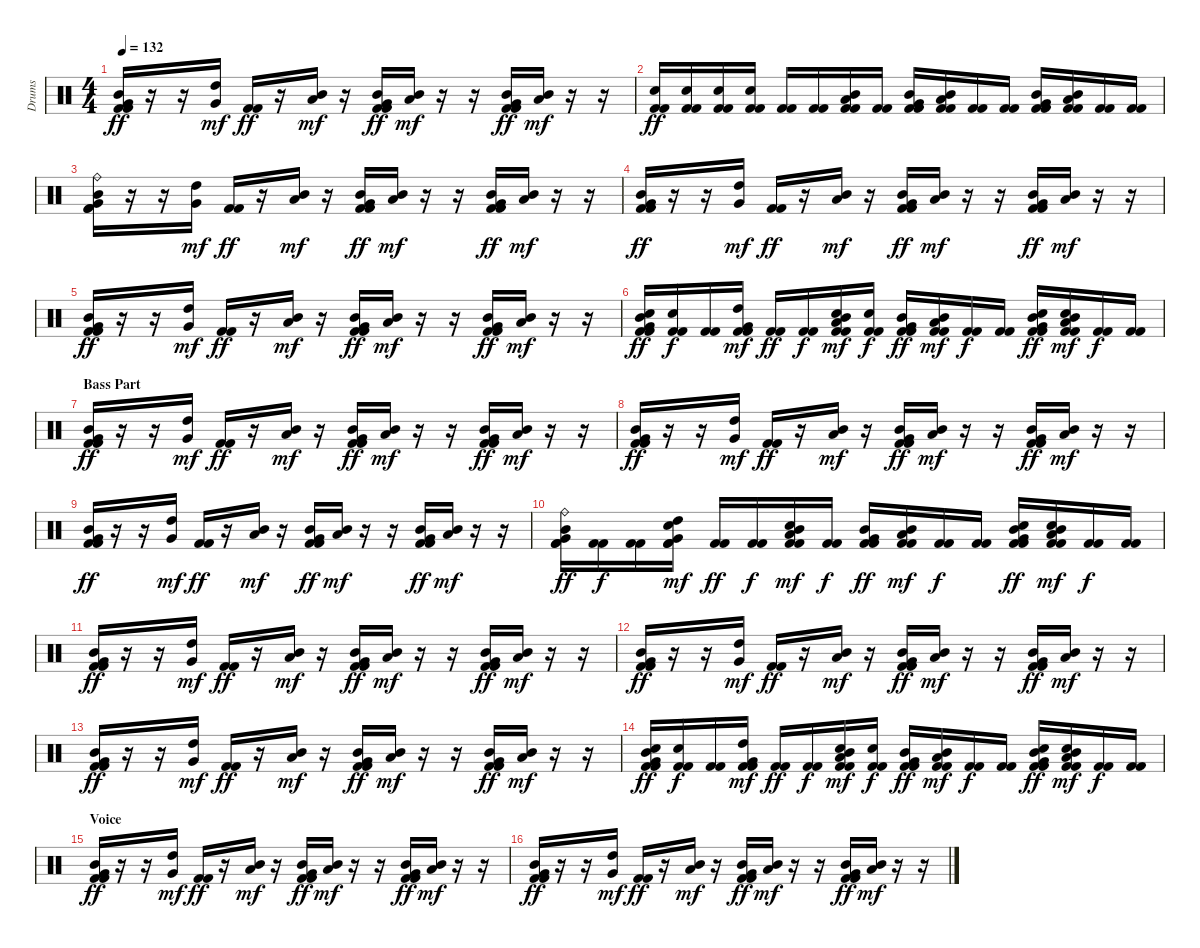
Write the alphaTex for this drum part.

\track ("Drums" "Drums") {instrument percussion}
\staff {score}
\articulation defaults
\ts (4 4)
\tempo 132
\clef neutral
\ks c
("Mid Tom (hit)" "Very Low Tom (hit)" "Kick (hit) 2" "Kick (hit) 2").16{dy ff} r.16 r.16 ("High Tom (hit)" "Very Low Tom (hit)").16{dy mf} ("Kick (hit) 2" "Kick (hit) 2").16{dy ff} r.16 ("Mid Tom (hit)" "Low Tom (hit)").16{dy mf} r.16 ("Mid Tom (hit)" "Very Low Tom (hit)" "Kick (hit) 2" "Kick (hit) 2").16{dy ff} ("Low Tom (hit)" "Mid Tom (hit)").16{dy mf} r.16 r.16 ("Mid Tom (hit)" "Very Low Tom (hit)" "Kick (hit) 2" "Kick (hit) 2").16{dy ff} ("Mid Tom (hit)" "Low Tom (hit)").16{dy mf} r.16 r.16 |
("Electric Snare (hit)" "Kick (hit) 2" "Kick (hit) 2").16{dy ff} ("Electric Snare (hit)" "Kick (hit) 2" "Kick (hit) 2").16 ("Electric Snare (hit)" "Kick (hit) 2" "Kick (hit) 2").16 ("Electric Snare (hit)" "Kick (hit) 2" "Kick (hit) 2").16 ("Kick (hit) 2" "Kick (hit) 2").16 ("Kick (hit) 2" "Kick (hit) 2").16 ("Mid Tom (hit)" "Low Tom (hit)" "Kick (hit) 2" "Kick (hit) 2").16 ("Kick (hit) 2" "Kick (hit) 2").16 ("Mid Tom (hit)" "Very Low Tom (hit)" "Kick (hit) 2" "Kick (hit) 2").16 ("Low Tom (hit)" "Mid Tom (hit)" "Kick (hit) 2" "Kick (hit) 2").16 ("Kick (hit) 2" "Kick (hit) 2").16 ("Kick (hit) 2" "Kick (hit) 2").16 ("Mid Tom (hit)" "Very Low Tom (hit)" "Kick (hit) 2" "Kick (hit) 2").16 ("Mid Tom (hit)" "Low Tom (hit)" "Kick (hit) 2" "Kick (hit) 2").16 ("Kick (hit) 2" "Kick (hit) 2").16 ("Kick (hit) 2" "Kick (hit) 2").16 |
("Ride (bell)" "Mid Tom (hit)" "Very Low Tom (hit)" "Kick (hit) 2" "Kick (hit) 2").16 r.16 r.16 ("High Tom (hit)" "Very Low Tom (hit)").16{dy mf} ("Kick (hit) 2" "Kick (hit) 2").16{dy ff} r.16 ("Mid Tom (hit)" "Low Tom (hit)").16{dy mf} r.16 ("Mid Tom (hit)" "Very Low Tom (hit)" "Kick (hit) 2" "Kick (hit) 2").16{dy ff} ("Low Tom (hit)" "Mid Tom (hit)").16{dy mf} r.16 r.16 ("Mid Tom (hit)" "Very Low Tom (hit)" "Kick (hit) 2" "Kick (hit) 2").16{dy ff} ("Mid Tom (hit)" "Low Tom (hit)").16{dy mf} r.16 r.16 |
("Mid Tom (hit)" "Very Low Tom (hit)" "Kick (hit) 2" "Kick (hit) 2").16{dy ff} r.16 r.16 ("High Tom (hit)" "Very Low Tom (hit)").16{dy mf} ("Kick (hit) 2" "Kick (hit) 2").16{dy ff} r.16 ("Mid Tom (hit)" "Low Tom (hit)").16{dy mf} r.16 ("Mid Tom (hit)" "Very Low Tom (hit)" "Kick (hit) 2" "Kick (hit) 2").16{dy ff} ("Low Tom (hit)" "Mid Tom (hit)").16{dy mf} r.16 r.16 ("Mid Tom (hit)" "Very Low Tom (hit)" "Kick (hit) 2" "Kick (hit) 2").16{dy ff} ("Mid Tom (hit)" "Low Tom (hit)").16{dy mf} r.16 r.16 |
("Mid Tom (hit)" "Very Low Tom (hit)" "Kick (hit) 2" "Kick (hit) 2").16{dy ff} r.16 r.16 ("High Tom (hit)" "Very Low Tom (hit)").16{dy mf} ("Kick (hit) 2" "Kick (hit) 2").16{dy ff} r.16 ("Mid Tom (hit)" "Low Tom (hit)").16{dy mf} r.16 ("Mid Tom (hit)" "Very Low Tom (hit)" "Kick (hit) 2" "Kick (hit) 2").16{dy ff} ("Low Tom (hit)" "Mid Tom (hit)").16{dy mf} r.16 r.16 ("Mid Tom (hit)" "Very Low Tom (hit)" "Kick (hit) 2" "Kick (hit) 2").16{dy ff} ("Mid Tom (hit)" "Low Tom (hit)").16{dy mf} r.16 r.16 |
("Electric Snare (hit)" "Mid Tom (hit)" "Very Low Tom (hit)" "Kick (hit) 2" "Kick (hit) 2").16{dy ff} ("Electric Snare (hit)" "Kick (hit) 2" "Kick (hit) 2").16{dy f} ("Kick (hit) 2" "Kick (hit) 2").16 ("High Tom (hit)" "Very Low Tom (hit)" "Kick (hit) 2" "Kick (hit) 2").16{dy mf} ("Kick (hit) 2" "Kick (hit) 2").16{dy ff} ("Kick (hit) 2" "Kick (hit) 2").16{dy f} ("Electric Snare (hit)" "Mid Tom (hit)" "Low Tom (hit)" "Kick (hit) 2" "Kick (hit) 2").16{dy mf} ("Electric Snare (hit)" "Kick (hit) 2" "Kick (hit) 2").16{dy f} ("Mid Tom (hit)" "Very Low Tom (hit)" "Kick (hit) 2" "Kick (hit) 2").16{dy ff} ("Low Tom (hit)" "Mid Tom (hit)" "Kick (hit) 2" "Kick (hit) 2").16{dy mf} ("Kick (hit) 2" "Kick (hit) 2").16{dy f} ("Kick (hit) 2" "Kick (hit) 2").16 ("Electric Snare (hit)" "Mid Tom (hit)" "Very Low Tom (hit)" "Kick (hit) 2" "Kick (hit) 2").16{dy ff} ("Electric Snare (hit)" "Mid Tom (hit)" "Low Tom (hit)" "Kick (hit) 2" "Kick (hit) 2").16{dy mf} ("Kick (hit) 2" "Kick (hit) 2").16{dy f} ("Kick (hit) 2" "Kick (hit) 2").16 |
\section ("" "Bass Part")
("Mid Tom (hit)" "Very Low Tom (hit)" "Kick (hit) 2" "Kick (hit) 2").16{dy ff} r.16 r.16 ("High Tom (hit)" "Very Low Tom (hit)").16{dy mf} ("Kick (hit) 2" "Kick (hit) 2").16{dy ff} r.16 ("Mid Tom (hit)" "Low Tom (hit)").16{dy mf} r.16 ("Mid Tom (hit)" "Very Low Tom (hit)" "Kick (hit) 2" "Kick (hit) 2").16{dy ff} ("Low Tom (hit)" "Mid Tom (hit)").16{dy mf} r.16 r.16 ("Mid Tom (hit)" "Very Low Tom (hit)" "Kick (hit) 2" "Kick (hit) 2").16{dy ff} ("Mid Tom (hit)" "Low Tom (hit)").16{dy mf} r.16 r.16 |
("Mid Tom (hit)" "Very Low Tom (hit)" "Kick (hit) 2" "Kick (hit) 2").16{dy ff} r.16 r.16 ("High Tom (hit)" "Very Low Tom (hit)").16{dy mf} ("Kick (hit) 2" "Kick (hit) 2").16{dy ff} r.16 ("Mid Tom (hit)" "Low Tom (hit)").16{dy mf} r.16 ("Mid Tom (hit)" "Very Low Tom (hit)" "Kick (hit) 2" "Kick (hit) 2").16{dy ff} ("Low Tom (hit)" "Mid Tom (hit)").16{dy mf} r.16 r.16 ("Mid Tom (hit)" "Very Low Tom (hit)" "Kick (hit) 2" "Kick (hit) 2").16{dy ff} ("Mid Tom (hit)" "Low Tom (hit)").16{dy mf} r.16 r.16 |
("Mid Tom (hit)" "Very Low Tom (hit)" "Kick (hit) 2" "Kick (hit) 2").16{dy ff} r.16 r.16 ("High Tom (hit)" "Very Low Tom (hit)").16{dy mf} ("Kick (hit) 2" "Kick (hit) 2").16{dy ff} r.16 ("Mid Tom (hit)" "Low Tom (hit)").16{dy mf} r.16 ("Mid Tom (hit)" "Very Low Tom (hit)" "Kick (hit) 2" "Kick (hit) 2").16{dy ff} ("Low Tom (hit)" "Mid Tom (hit)").16{dy mf} r.16 r.16 ("Mid Tom (hit)" "Very Low Tom (hit)" "Kick (hit) 2" "Kick (hit) 2").16{dy ff} ("Mid Tom (hit)" "Low Tom (hit)").16{dy mf} r.16 r.16 |
("Ride (bell)" "Mid Tom (hit)" "Very Low Tom (hit)" "Kick (hit) 2" "Kick (hit) 2").16{dy ff} ("Kick (hit) 2" "Kick (hit) 2").16{dy f} ("Kick (hit) 2" "Kick (hit) 2").16 ("Electric Snare (hit)" "High Tom (hit)" "Very Low Tom (hit)" "Kick (hit) 2" "Kick (hit) 2").16{dy mf} ("Kick (hit) 2" "Kick (hit) 2").16{dy ff} ("Kick (hit) 2" "Kick (hit) 2").16{dy f} ("Electric Snare (hit)" "Mid Tom (hit)" "Low Tom (hit)" "Kick (hit) 2" "Kick (hit) 2").16{dy mf} ("Kick (hit) 2" "Kick (hit) 2").16{dy f} ("Mid Tom (hit)" "Very Low Tom (hit)" "Kick (hit) 2" "Kick (hit) 2").16{dy ff} ("Low Tom (hit)" "Mid Tom (hit)" "Kick (hit) 2" "Kick (hit) 2").16{dy mf} ("Kick (hit) 2" "Kick (hit) 2").16{dy f} ("Kick (hit) 2" "Kick (hit) 2").16 ("Electric Snare (hit)" "Mid Tom (hit)" "Very Low Tom (hit)" "Kick (hit) 2" "Kick (hit) 2").16{dy ff} ("Electric Snare (hit)" "Mid Tom (hit)" "Low Tom (hit)" "Kick (hit) 2" "Kick (hit) 2").16{dy mf} ("Kick (hit) 2" "Kick (hit) 2").16{dy f} ("Kick (hit) 2" "Kick (hit) 2").16 |
("Mid Tom (hit)" "Very Low Tom (hit)" "Kick (hit) 2" "Kick (hit) 2").16{dy ff} r.16 r.16 ("High Tom (hit)" "Very Low Tom (hit)").16{dy mf} ("Kick (hit) 2" "Kick (hit) 2").16{dy ff} r.16 ("Mid Tom (hit)" "Low Tom (hit)").16{dy mf} r.16 ("Mid Tom (hit)" "Very Low Tom (hit)" "Kick (hit) 2" "Kick (hit) 2").16{dy ff} ("Low Tom (hit)" "Mid Tom (hit)").16{dy mf} r.16 r.16 ("Mid Tom (hit)" "Very Low Tom (hit)" "Kick (hit) 2" "Kick (hit) 2").16{dy ff} ("Mid Tom (hit)" "Low Tom (hit)").16{dy mf} r.16 r.16 |
("Mid Tom (hit)" "Very Low Tom (hit)" "Kick (hit) 2" "Kick (hit) 2").16{dy ff} r.16 r.16 ("High Tom (hit)" "Very Low Tom (hit)").16{dy mf} ("Kick (hit) 2" "Kick (hit) 2").16{dy ff} r.16 ("Mid Tom (hit)" "Low Tom (hit)").16{dy mf} r.16 ("Mid Tom (hit)" "Very Low Tom (hit)" "Kick (hit) 2" "Kick (hit) 2").16{dy ff} ("Low Tom (hit)" "Mid Tom (hit)").16{dy mf} r.16 r.16 ("Mid Tom (hit)" "Very Low Tom (hit)" "Kick (hit) 2" "Kick (hit) 2").16{dy ff} ("Mid Tom (hit)" "Low Tom (hit)").16{dy mf} r.16 r.16 |
("Mid Tom (hit)" "Very Low Tom (hit)" "Kick (hit) 2" "Kick (hit) 2").16{dy ff} r.16 r.16 ("High Tom (hit)" "Very Low Tom (hit)").16{dy mf} ("Kick (hit) 2" "Kick (hit) 2").16{dy ff} r.16 ("Mid Tom (hit)" "Low Tom (hit)").16{dy mf} r.16 ("Mid Tom (hit)" "Very Low Tom (hit)" "Kick (hit) 2" "Kick (hit) 2").16{dy ff} ("Low Tom (hit)" "Mid Tom (hit)").16{dy mf} r.16 r.16 ("Mid Tom (hit)" "Very Low Tom (hit)" "Kick (hit) 2" "Kick (hit) 2").16{dy ff} ("Mid Tom (hit)" "Low Tom (hit)").16{dy mf} r.16 r.16 |
("Electric Snare (hit)" "Mid Tom (hit)" "Very Low Tom (hit)" "Kick (hit) 2" "Kick (hit) 2").16{dy ff} ("Electric Snare (hit)" "Kick (hit) 2" "Kick (hit) 2").16{dy f} ("Kick (hit) 2" "Kick (hit) 2").16 ("High Tom (hit)" "Very Low Tom (hit)" "Kick (hit) 2" "Kick (hit) 2").16{dy mf} ("Kick (hit) 2" "Kick (hit) 2").16{dy ff} ("Kick (hit) 2" "Kick (hit) 2").16{dy f} ("Electric Snare (hit)" "Mid Tom (hit)" "Low Tom (hit)" "Kick (hit) 2" "Kick (hit) 2").16{dy mf} ("Electric Snare (hit)" "Kick (hit) 2" "Kick (hit) 2").16{dy f} ("Mid Tom (hit)" "Very Low Tom (hit)" "Kick (hit) 2" "Kick (hit) 2").16{dy ff} ("Low Tom (hit)" "Mid Tom (hit)" "Kick (hit) 2" "Kick (hit) 2").16{dy mf} ("Kick (hit) 2" "Kick (hit) 2").16{dy f} ("Kick (hit) 2" "Kick (hit) 2").16 ("Electric Snare (hit)" "Mid Tom (hit)" "Very Low Tom (hit)" "Kick (hit) 2" "Kick (hit) 2").16{dy ff} ("Electric Snare (hit)" "Mid Tom (hit)" "Low Tom (hit)" "Kick (hit) 2" "Kick (hit) 2").16{dy mf} ("Kick (hit) 2" "Kick (hit) 2").16{dy f} ("Kick (hit) 2" "Kick (hit) 2").16 |
\section ("" "Voice")
("Mid Tom (hit)" "Very Low Tom (hit)" "Kick (hit) 2" "Kick (hit) 2").16{dy ff} r.16 r.16 ("High Tom (hit)" "Very Low Tom (hit)").16{dy mf} ("Kick (hit) 2" "Kick (hit) 2").16{dy ff} r.16 ("Mid Tom (hit)" "Low Tom (hit)").16{dy mf} r.16 ("Mid Tom (hit)" "Very Low Tom (hit)" "Kick (hit) 2" "Kick (hit) 2").16{dy ff} ("Low Tom (hit)" "Mid Tom (hit)").16{dy mf} r.16 r.16 ("Mid Tom (hit)" "Very Low Tom (hit)" "Kick (hit) 2" "Kick (hit) 2").16{dy ff} ("Mid Tom (hit)" "Low Tom (hit)").16{dy mf} r.16 r.16 |
("Mid Tom (hit)" "Very Low Tom (hit)" "Kick (hit) 2" "Kick (hit) 2").16{dy ff} r.16 r.16 ("High Tom (hit)" "Very Low Tom (hit)").16{dy mf} ("Kick (hit) 2" "Kick (hit) 2").16{dy ff} r.16 ("Mid Tom (hit)" "Low Tom (hit)").16{dy mf} r.16 ("Mid Tom (hit)" "Very Low Tom (hit)" "Kick (hit) 2" "Kick (hit) 2").16{dy ff} ("Low Tom (hit)" "Mid Tom (hit)").16{dy mf} r.16 r.16 ("Mid Tom (hit)" "Very Low Tom (hit)" "Kick (hit) 2" "Kick (hit) 2").16{dy ff} ("Mid Tom (hit)" "Low Tom (hit)").16{dy mf} r.16 r.16
